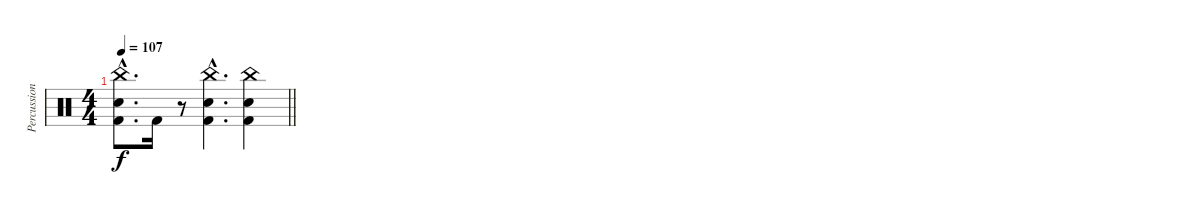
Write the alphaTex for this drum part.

\track ("Percussion" "Percussion") {instrument percussion}
\staff {score}
\articulation defaults
\ts (4 4)
\tempo 107
\clef neutral
\barLineRight lightlight
\ks c
("China (hit)"{hac} "Electric Snare (hit)"{hac} "Kick (hit) 2"{hac}).8{d dy f} "Kick (hit) 2".16 r.8 ("China (hit)"{hac} "Electric Snare (hit)"{hac} "Kick (hit) 2"{hac}).4{d} ("China (hit)" "Electric Snare (hit)" "Kick (hit) 2").4
